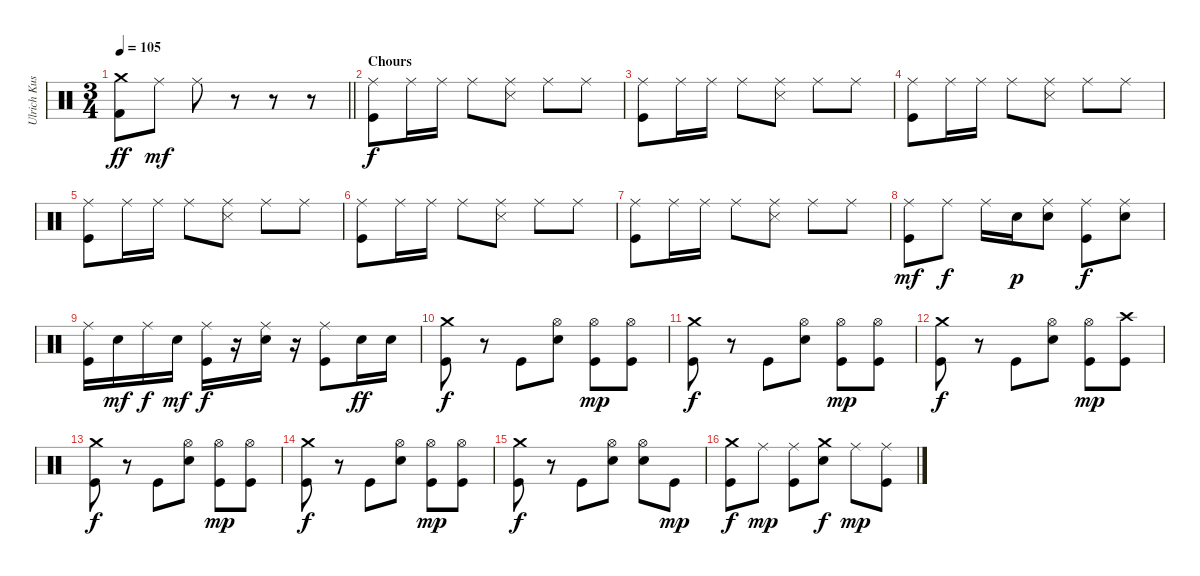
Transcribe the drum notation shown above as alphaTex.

\track ("Ulrich Kusch" "Ulrich Kus") {instrument percussion}
\staff {score}
\articulation defaults
\ts (3 4)
\tempo 105
\clef neutral
\barLineRight lightlight
\ks c
("Crash medium (hit)" "Kick (hit) 2").8{dy ff} "Ride (middle)".8{dy mf} "Ride (middle)".8 r.8 r.8 r.8 |
\section ("" "Chours")
("Ride (middle)" "Kick (hit)").8{dy f} "Ride (middle)".16 "Ride (middle)".16 "Ride (middle)".8 ("Ride (middle)" "Snare (side stick) 3").8 "Ride (middle)".8 "Ride (middle)".8 |
("Ride (middle)" "Kick (hit)").8 "Ride (middle)".16 "Ride (middle)".16 "Ride (middle)".8 ("Ride (middle)" "Snare (side stick) 3").8 "Ride (middle)".8 "Ride (middle)".8 |
("Ride (middle)" "Kick (hit)").8 "Ride (middle)".16 "Ride (middle)".16 "Ride (middle)".8 ("Ride (middle)" "Snare (side stick) 3").8 "Ride (middle)".8 "Ride (middle)".8 |
("Ride (middle)" "Kick (hit)").8 "Ride (middle)".16 "Ride (middle)".16 "Ride (middle)".8 ("Ride (middle)" "Snare (side stick) 3").8 "Ride (middle)".8 "Ride (middle)".8 |
("Ride (middle)" "Kick (hit)").8 "Ride (middle)".16 "Ride (middle)".16 "Ride (middle)".8 ("Ride (middle)" "Snare (side stick) 3").8 "Ride (middle)".8 "Ride (middle)".8 |
("Ride (middle)" "Kick (hit)").8 "Ride (middle)".16 "Ride (middle)".16 "Ride (middle)".8 ("Ride (middle)" "Snare (side stick) 3").8 "Ride (middle)".8 "Ride (middle)".8 |
("Ride (middle)" "Kick (hit)").8{dy mf} "Ride (middle)".8{dy f} "Ride (middle)".16 "Electric Snare (hit)".16{dy p} ("Ride (middle)" "Electric Snare (hit)").8 ("Ride (middle)" "Kick (hit)").8{dy f} ("Ride (middle)" "Electric Snare (hit)").8 |
("Ride (middle)" "Kick (hit)").16 "Electric Snare (hit)".16{dy mf} "Ride (middle)".16{dy f} "Electric Snare (hit)".16{dy mf} ("Ride (middle)" "Kick (hit)").16{dy f} r.16 ("Ride (middle)" "Electric Snare (hit)").16 r.16 ("Ride (middle)" "Kick (hit)").8 "Electric Snare (hit)".16{dy ff} "Electric Snare (hit)".16 |
("Crash medium (hit)" "Kick (hit)").8{dy f} r.8 "Kick (hit)".8 ("Hi-Hat (open)" "Electric Snare (hit)").8 ("Hi-Hat (open)" "Kick (hit)").8{dy mp} ("Hi-Hat (open)" "Kick (hit)").8 |
("Crash medium (hit)" "Kick (hit)").8{dy f} r.8 "Kick (hit)".8 ("Hi-Hat (open)" "Electric Snare (hit)").8 ("Hi-Hat (open)" "Kick (hit)").8{dy mp} ("Hi-Hat (open)" "Kick (hit)").8 |
("Crash medium (hit)" "Kick (hit)").8{dy f} r.8 "Kick (hit)".8 ("Hi-Hat (open)" "Electric Snare (hit)").8 ("Hi-Hat (open)" "Kick (hit)").8{dy mp} ("Crash high (hit)" "Kick (hit)").8 |
("Crash medium (hit)" "Kick (hit)").8{dy f} r.8 "Kick (hit)".8 ("Hi-Hat (open)" "Electric Snare (hit)").8 ("Hi-Hat (open)" "Kick (hit)").8{dy mp} ("Hi-Hat (open)" "Kick (hit)").8 |
("Crash medium (hit)" "Kick (hit)").8{dy f} r.8 "Kick (hit)".8 ("Hi-Hat (open)" "Electric Snare (hit)").8 ("Hi-Hat (open)" "Kick (hit)").8{dy mp} ("Hi-Hat (open)" "Kick (hit)").8 |
("Crash medium (hit)" "Kick (hit)").8{dy f} r.8 "Kick (hit)".8 ("Hi-Hat (open)" "Electric Snare (hit)").8 ("Hi-Hat (open)" "Electric Snare (hit)").8 "Kick (hit)".8{dy mp} |
("Crash medium (hit)" "Kick (hit)").8{dy f} "Ride (middle)".8{dy mp} ("Ride (middle)" "Kick (hit)").8 ("Crash medium (hit)" "Electric Snare (hit)").8{dy f} "Ride (middle)".8{dy mp} ("Ride (middle)" "Kick (hit)").8
